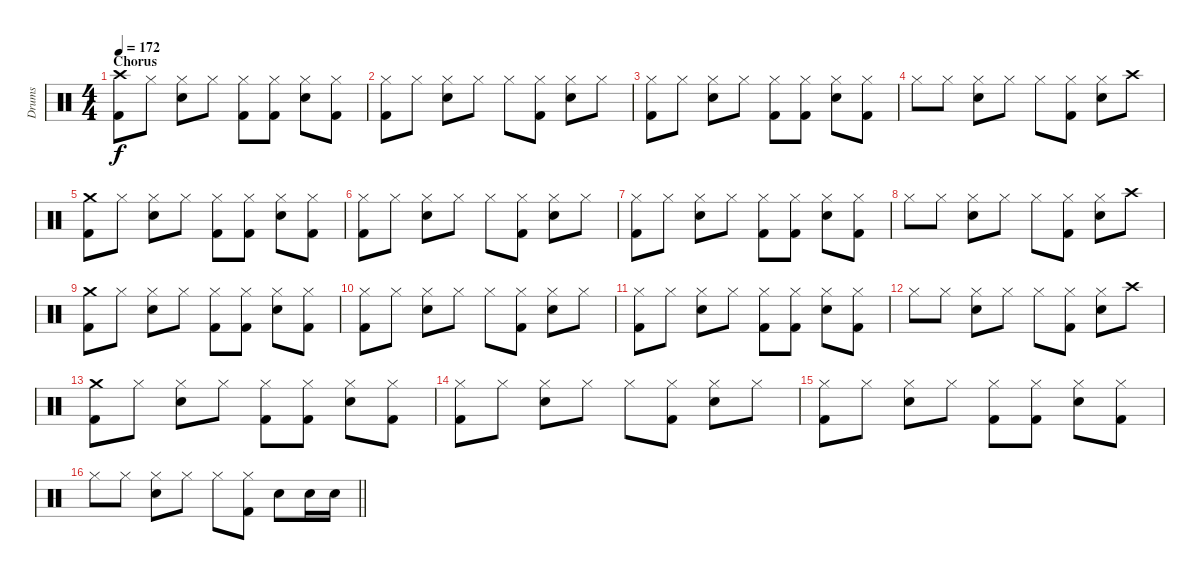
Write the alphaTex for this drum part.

\track ("Drums" "Drums") {instrument percussion}
\staff {score}
\articulation defaults
\ts (4 4)
\section ("" "Chorus")
\tempo 172
\clef neutral
\ks c
("Crash high (hit)" "Kick (hit) 2").8{dy f} "Hi-Hat (closed)".8 ("Hi-Hat (closed)" "Electric Snare (hit)").8 "Hi-Hat (closed)".8 ("Hi-Hat (closed)" "Kick (hit) 2").8 ("Hi-Hat (closed)" "Kick (hit) 2").8 ("Hi-Hat (closed)" "Electric Snare (hit)").8 ("Hi-Hat (closed)" "Kick (hit) 2").8 |
("Hi-Hat (closed)" "Kick (hit) 2").8 "Hi-Hat (closed)".8 ("Hi-Hat (closed)" "Electric Snare (hit)").8 "Hi-Hat (closed)".8 "Hi-Hat (closed)".8 ("Hi-Hat (closed)" "Kick (hit) 2").8 ("Hi-Hat (closed)" "Electric Snare (hit)").8 "Hi-Hat (closed)".8 |
("Hi-Hat (closed)" "Kick (hit) 2").8 "Hi-Hat (closed)".8 ("Hi-Hat (closed)" "Electric Snare (hit)").8 "Hi-Hat (closed)".8 ("Hi-Hat (closed)" "Kick (hit) 2").8 ("Hi-Hat (closed)" "Kick (hit) 2").8 ("Hi-Hat (closed)" "Electric Snare (hit)").8 ("Hi-Hat (closed)" "Kick (hit) 2").8 |
"Hi-Hat (closed)".8 "Hi-Hat (closed)".8 ("Hi-Hat (closed)" "Electric Snare (hit)").8 "Hi-Hat (closed)".8 "Hi-Hat (closed)".8 ("Hi-Hat (closed)" "Kick (hit) 2").8 ("Hi-Hat (closed)" "Electric Snare (hit)").8 "Crash high (hit)".8 |
("Crash medium (hit)" "Kick (hit) 2").8 "Hi-Hat (closed)".8 ("Hi-Hat (closed)" "Electric Snare (hit)").8 "Hi-Hat (closed)".8 ("Hi-Hat (closed)" "Kick (hit) 2").8 ("Hi-Hat (closed)" "Kick (hit) 2").8 ("Hi-Hat (closed)" "Electric Snare (hit)").8 ("Hi-Hat (closed)" "Kick (hit) 2").8 |
("Hi-Hat (closed)" "Kick (hit) 2").8 "Hi-Hat (closed)".8 ("Hi-Hat (closed)" "Electric Snare (hit)").8 "Hi-Hat (closed)".8 "Hi-Hat (closed)".8 ("Hi-Hat (closed)" "Kick (hit) 2").8 ("Hi-Hat (closed)" "Electric Snare (hit)").8 "Hi-Hat (closed)".8 |
("Hi-Hat (closed)" "Kick (hit) 2").8 "Hi-Hat (closed)".8 ("Hi-Hat (closed)" "Electric Snare (hit)").8 "Hi-Hat (closed)".8 ("Hi-Hat (closed)" "Kick (hit) 2").8 ("Hi-Hat (closed)" "Kick (hit) 2").8 ("Hi-Hat (closed)" "Electric Snare (hit)").8 ("Hi-Hat (closed)" "Kick (hit) 2").8 |
"Hi-Hat (closed)".8 "Hi-Hat (closed)".8 ("Hi-Hat (closed)" "Electric Snare (hit)").8 "Hi-Hat (closed)".8 "Hi-Hat (closed)".8 ("Hi-Hat (closed)" "Kick (hit) 2").8 ("Hi-Hat (closed)" "Electric Snare (hit)").8 "Crash high (hit)".8 |
("Crash medium (hit)" "Kick (hit) 2").8 "Hi-Hat (closed)".8 ("Hi-Hat (closed)" "Electric Snare (hit)").8 "Hi-Hat (closed)".8 ("Hi-Hat (closed)" "Kick (hit) 2").8 ("Hi-Hat (closed)" "Kick (hit) 2").8 ("Hi-Hat (closed)" "Electric Snare (hit)").8 ("Hi-Hat (closed)" "Kick (hit) 2").8 |
("Hi-Hat (closed)" "Kick (hit) 2").8 "Hi-Hat (closed)".8 ("Hi-Hat (closed)" "Electric Snare (hit)").8 "Hi-Hat (closed)".8 "Hi-Hat (closed)".8 ("Hi-Hat (closed)" "Kick (hit) 2").8 ("Hi-Hat (closed)" "Electric Snare (hit)").8 "Hi-Hat (closed)".8 |
("Hi-Hat (closed)" "Kick (hit) 2").8 "Hi-Hat (closed)".8 ("Hi-Hat (closed)" "Electric Snare (hit)").8 "Hi-Hat (closed)".8 ("Hi-Hat (closed)" "Kick (hit) 2").8 ("Hi-Hat (closed)" "Kick (hit) 2").8 ("Hi-Hat (closed)" "Electric Snare (hit)").8 ("Hi-Hat (closed)" "Kick (hit) 2").8 |
"Hi-Hat (closed)".8 "Hi-Hat (closed)".8 ("Hi-Hat (closed)" "Electric Snare (hit)").8 "Hi-Hat (closed)".8 "Hi-Hat (closed)".8 ("Hi-Hat (closed)" "Kick (hit) 2").8 ("Hi-Hat (closed)" "Electric Snare (hit)").8 "Crash high (hit)".8 |
("Crash medium (hit)" "Kick (hit) 2").8 "Hi-Hat (closed)".8 ("Hi-Hat (closed)" "Electric Snare (hit)").8 "Hi-Hat (closed)".8 ("Hi-Hat (closed)" "Kick (hit) 2").8 ("Hi-Hat (closed)" "Kick (hit) 2").8 ("Hi-Hat (closed)" "Electric Snare (hit)").8 ("Hi-Hat (closed)" "Kick (hit) 2").8 |
("Hi-Hat (closed)" "Kick (hit) 2").8 "Hi-Hat (closed)".8 ("Hi-Hat (closed)" "Electric Snare (hit)").8 "Hi-Hat (closed)".8 "Hi-Hat (closed)".8 ("Hi-Hat (closed)" "Kick (hit) 2").8 ("Hi-Hat (closed)" "Electric Snare (hit)").8 "Hi-Hat (closed)".8 |
("Hi-Hat (closed)" "Kick (hit) 2").8 "Hi-Hat (closed)".8 ("Hi-Hat (closed)" "Electric Snare (hit)").8 "Hi-Hat (closed)".8 ("Hi-Hat (closed)" "Kick (hit) 2").8 ("Hi-Hat (closed)" "Kick (hit) 2").8 ("Hi-Hat (closed)" "Electric Snare (hit)").8 ("Hi-Hat (closed)" "Kick (hit) 2").8 |
\barLineRight lightlight "Hi-Hat (closed)".8 "Hi-Hat (closed)".8
("Hi-Hat (closed)" "Electric Snare (hit)").8 "Hi-Hat (closed)".8 "Hi-Hat (closed)".8 ("Hi-Hat (closed)" "Kick (hit) 2").8 "Electric Snare (hit)".8 "Electric Snare (hit)".16 "Electric Snare (hit)".16
